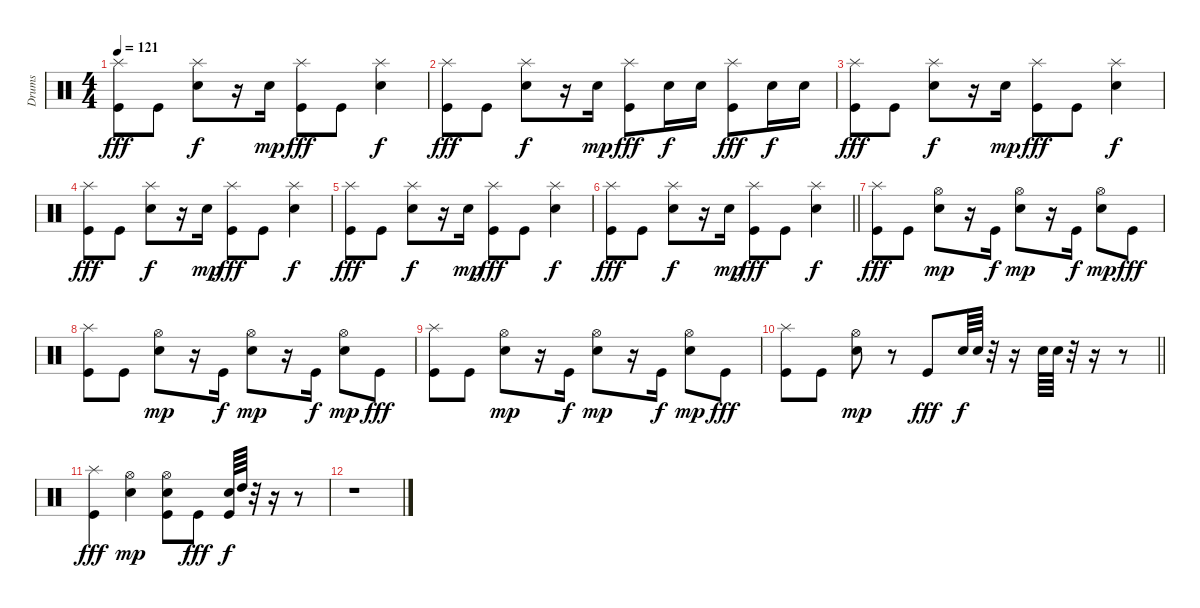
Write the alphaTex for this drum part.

\track ("Drums" "Drums") {instrument percussion}
\staff {score}
\articulation defaults
\ts (4 4)
\tempo 121
\clef neutral
\ks c
("Splash (hit)" "Kick (hit)").8{dy fff} "Kick (hit)".8 ("Splash (hit)" "Snare (hit) 2").8{dy f} r.16 "Snare (hit) 2".16{dy mp} ("Splash (hit)" "Kick (hit)").8{dy fff} "Kick (hit)".8 ("Splash (hit)" "Snare (hit) 2").4{dy f} |
("Splash (hit)" "Kick (hit)").8{dy fff} "Kick (hit)".8 ("Splash (hit)" "Snare (hit) 2").8{dy f} r.16 "Snare (hit) 2".16{dy mp} ("Splash (hit)" "Kick (hit)").8{dy fff} "Snare (hit) 2".16{dy f} "Snare (hit) 2".16 ("Splash (hit)" "Kick (hit)").8{dy fff} "Snare (hit) 2".16{dy f} "Snare (hit) 2".16 |
("Splash (hit)" "Kick (hit)").8{dy fff} "Kick (hit)".8 ("Splash (hit)" "Snare (hit) 2").8{dy f} r.16 "Snare (hit) 2".16{dy mp} ("Splash (hit)" "Kick (hit)").8{dy fff} "Kick (hit)".8 ("Splash (hit)" "Snare (hit) 2").4{dy f} |
("Splash (hit)" "Kick (hit)").8{dy fff} "Kick (hit)".8 ("Splash (hit)" "Snare (hit) 2").8{dy f} r.16 "Snare (hit) 2".16{dy mp} ("Splash (hit)" "Kick (hit)").8{dy fff} "Kick (hit)".8 ("Splash (hit)" "Snare (hit) 2").4{dy f} |
("Splash (hit)" "Kick (hit)").8{dy fff} "Kick (hit)".8 ("Splash (hit)" "Snare (hit) 2").8{dy f} r.16 "Snare (hit) 2".16{dy mp} ("Splash (hit)" "Kick (hit)").8{dy fff} "Kick (hit)".8 ("Splash (hit)" "Snare (hit) 2").4{dy f} |
\barLineRight lightlight
("Splash (hit)" "Kick (hit)").8{dy fff} "Kick (hit)".8 ("Splash (hit)" "Snare (hit) 2").8{dy f} r.16 "Snare (hit) 2".16{dy mp} ("Splash (hit)" "Kick (hit)").8{dy fff} "Kick (hit)".8 ("Splash (hit)" "Snare (hit) 2").4{dy f} |
("Splash (hit)" "Kick (hit)").8{dy fff} "Kick (hit)".8 ("Hi-Hat (open)" "Snare (hit) 2").8{dy mp} r.16 "Kick (hit)".16{dy f} ("Hi-Hat (open)" "Snare (hit) 2").8{dy mp} r.16 "Kick (hit)".16{dy f} ("Hi-Hat (open)" "Snare (hit) 2").8{dy mp} "Kick (hit)".8{dy fff} |
("Splash (hit)" "Kick (hit)").8 "Kick (hit)".8 ("Hi-Hat (open)" "Snare (hit) 2").8{dy mp} r.16 "Kick (hit)".16{dy f} ("Hi-Hat (open)" "Snare (hit) 2").8{dy mp} r.16 "Kick (hit)".16{dy f} ("Hi-Hat (open)" "Snare (hit) 2").8{dy mp} "Kick (hit)".8{dy fff} |
("Splash (hit)" "Kick (hit)").8 "Kick (hit)".8 ("Hi-Hat (open)" "Snare (hit) 2").8{dy mp} r.16 "Kick (hit)".16{dy f} ("Hi-Hat (open)" "Snare (hit) 2").8{dy mp} r.16 "Kick (hit)".16{dy f} ("Hi-Hat (open)" "Snare (hit) 2").8{dy mp} "Kick (hit)".8{dy fff} |
\barLineRight lightlight
("Splash (hit)" "Kick (hit)").8 "Kick (hit)".8 ("Hi-Hat (open)" "Snare (hit) 2").8{dy mp} r.8 "Kick (hit)".8{dy fff} "Snare (hit) 2".64{dy f} "Snare (hit) 2".64 r.32 r.16 "Snare (hit) 2".64 "Snare (hit) 2".64 r.32 r.16 r.8 |
("Splash (hit)" "Kick (hit)").4{dy fff} ("Hi-Hat (open)" "Snare (hit) 2").4{dy mp} ("Hi-Hat (open)" "Snare (hit) 2" "Kick (hit)").8 "Kick (hit)".8{dy fff} ("Snare (hit)"{x} "Kick (hit)").64{dy f} "High Tom (hit)".64 r.32 r.16 r.8 |
r.1
